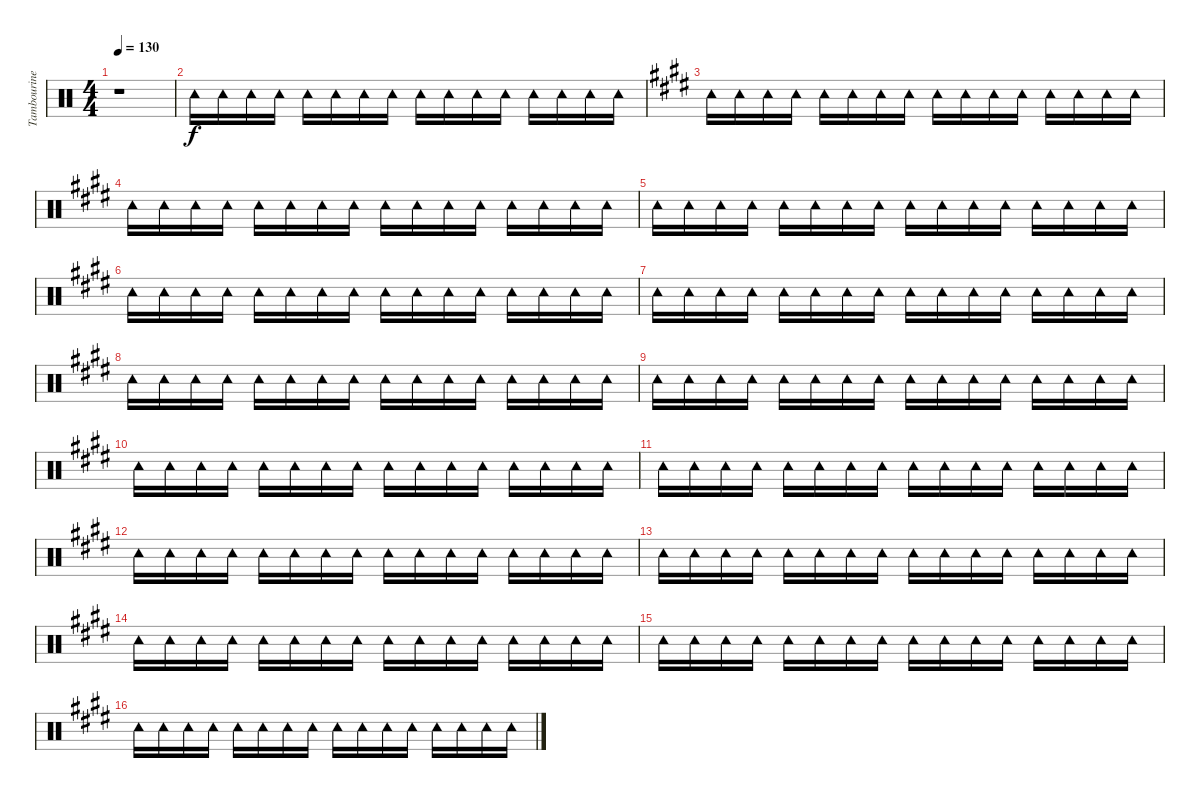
\track ("Tambourine" "Tambourine") {instrument percussion}
\staff {score}
\articulation defaults
\ts (4 4)
\tempo 130
\clef neutral
\ks c
r.1{dy f} |
"Tambourine (hit)".16 "Tambourine (hit)".16 "Tambourine (hit)".16 "Tambourine (hit)".16 "Tambourine (hit)".16 "Tambourine (hit)".16 "Tambourine (hit)".16 "Tambourine (hit)".16 "Tambourine (hit)".16 "Tambourine (hit)".16 "Tambourine (hit)".16 "Tambourine (hit)".16 "Tambourine (hit)".16 "Tambourine (hit)".16 "Tambourine (hit)".16 "Tambourine (hit)".16 |
\ks c#minor "Tambourine (hit)".16 "Tambourine (hit)".16 "Tambourine (hit)".16 "Tambourine (hit)".16 "Tambourine (hit)".16 "Tambourine (hit)".16 "Tambourine (hit)".16 "Tambourine (hit)".16 "Tambourine (hit)".16 "Tambourine (hit)".16 "Tambourine (hit)".16 "Tambourine (hit)".16 "Tambourine (hit)".16 "Tambourine (hit)".16 "Tambourine (hit)".16 "Tambourine (hit)".16
|
"Tambourine (hit)".16 "Tambourine (hit)".16 "Tambourine (hit)".16 "Tambourine (hit)".16 "Tambourine (hit)".16 "Tambourine (hit)".16 "Tambourine (hit)".16 "Tambourine (hit)".16 "Tambourine (hit)".16 "Tambourine (hit)".16 "Tambourine (hit)".16 "Tambourine (hit)".16 "Tambourine (hit)".16 "Tambourine (hit)".16 "Tambourine (hit)".16 "Tambourine (hit)".16 |
"Tambourine (hit)".16 "Tambourine (hit)".16 "Tambourine (hit)".16 "Tambourine (hit)".16 "Tambourine (hit)".16 "Tambourine (hit)".16 "Tambourine (hit)".16 "Tambourine (hit)".16 "Tambourine (hit)".16 "Tambourine (hit)".16 "Tambourine (hit)".16 "Tambourine (hit)".16 "Tambourine (hit)".16 "Tambourine (hit)".16 "Tambourine (hit)".16 "Tambourine (hit)".16 |
"Tambourine (hit)".16 "Tambourine (hit)".16 "Tambourine (hit)".16 "Tambourine (hit)".16 "Tambourine (hit)".16 "Tambourine (hit)".16 "Tambourine (hit)".16 "Tambourine (hit)".16 "Tambourine (hit)".16 "Tambourine (hit)".16 "Tambourine (hit)".16 "Tambourine (hit)".16 "Tambourine (hit)".16 "Tambourine (hit)".16 "Tambourine (hit)".16 "Tambourine (hit)".16 |
"Tambourine (hit)".16 "Tambourine (hit)".16 "Tambourine (hit)".16 "Tambourine (hit)".16 "Tambourine (hit)".16 "Tambourine (hit)".16 "Tambourine (hit)".16 "Tambourine (hit)".16 "Tambourine (hit)".16 "Tambourine (hit)".16 "Tambourine (hit)".16 "Tambourine (hit)".16 "Tambourine (hit)".16 "Tambourine (hit)".16 "Tambourine (hit)".16 "Tambourine (hit)".16 |
"Tambourine (hit)".16 "Tambourine (hit)".16 "Tambourine (hit)".16 "Tambourine (hit)".16 "Tambourine (hit)".16 "Tambourine (hit)".16 "Tambourine (hit)".16 "Tambourine (hit)".16 "Tambourine (hit)".16 "Tambourine (hit)".16 "Tambourine (hit)".16 "Tambourine (hit)".16 "Tambourine (hit)".16 "Tambourine (hit)".16 "Tambourine (hit)".16 "Tambourine (hit)".16 |
"Tambourine (hit)".16 "Tambourine (hit)".16 "Tambourine (hit)".16 "Tambourine (hit)".16 "Tambourine (hit)".16 "Tambourine (hit)".16 "Tambourine (hit)".16 "Tambourine (hit)".16 "Tambourine (hit)".16 "Tambourine (hit)".16 "Tambourine (hit)".16 "Tambourine (hit)".16 "Tambourine (hit)".16 "Tambourine (hit)".16 "Tambourine (hit)".16 "Tambourine (hit)".16 |
"Tambourine (hit)".16 "Tambourine (hit)".16 "Tambourine (hit)".16 "Tambourine (hit)".16 "Tambourine (hit)".16 "Tambourine (hit)".16 "Tambourine (hit)".16 "Tambourine (hit)".16 "Tambourine (hit)".16 "Tambourine (hit)".16 "Tambourine (hit)".16 "Tambourine (hit)".16 "Tambourine (hit)".16 "Tambourine (hit)".16 "Tambourine (hit)".16 "Tambourine (hit)".16 |
"Tambourine (hit)".16 "Tambourine (hit)".16 "Tambourine (hit)".16 "Tambourine (hit)".16 "Tambourine (hit)".16 "Tambourine (hit)".16 "Tambourine (hit)".16 "Tambourine (hit)".16 "Tambourine (hit)".16 "Tambourine (hit)".16 "Tambourine (hit)".16 "Tambourine (hit)".16 "Tambourine (hit)".16 "Tambourine (hit)".16 "Tambourine (hit)".16 "Tambourine (hit)".16 |
"Tambourine (hit)".16 "Tambourine (hit)".16 "Tambourine (hit)".16 "Tambourine (hit)".16 "Tambourine (hit)".16 "Tambourine (hit)".16 "Tambourine (hit)".16 "Tambourine (hit)".16 "Tambourine (hit)".16 "Tambourine (hit)".16 "Tambourine (hit)".16 "Tambourine (hit)".16 "Tambourine (hit)".16 "Tambourine (hit)".16 "Tambourine (hit)".16 "Tambourine (hit)".16 |
\ks e "Tambourine (hit)".16 "Tambourine (hit)".16 "Tambourine (hit)".16 "Tambourine (hit)".16 "Tambourine (hit)".16 "Tambourine (hit)".16 "Tambourine (hit)".16 "Tambourine (hit)".16 "Tambourine (hit)".16 "Tambourine (hit)".16 "Tambourine (hit)".16 "Tambourine (hit)".16 "Tambourine (hit)".16 "Tambourine (hit)".16 "Tambourine (hit)".16 "Tambourine (hit)".16
|
\ks c#minor "Tambourine (hit)".16 "Tambourine (hit)".16 "Tambourine (hit)".16 "Tambourine (hit)".16 "Tambourine (hit)".16 "Tambourine (hit)".16 "Tambourine (hit)".16 "Tambourine (hit)".16 "Tambourine (hit)".16 "Tambourine (hit)".16 "Tambourine (hit)".16 "Tambourine (hit)".16 "Tambourine (hit)".16 "Tambourine (hit)".16 "Tambourine (hit)".16 "Tambourine (hit)".16
|
"Tambourine (hit)".16 "Tambourine (hit)".16 "Tambourine (hit)".16 "Tambourine (hit)".16 "Tambourine (hit)".16 "Tambourine (hit)".16 "Tambourine (hit)".16 "Tambourine (hit)".16 "Tambourine (hit)".16 "Tambourine (hit)".16 "Tambourine (hit)".16 "Tambourine (hit)".16 "Tambourine (hit)".16 "Tambourine (hit)".16 "Tambourine (hit)".16 "Tambourine (hit)".16 |
"Tambourine (hit)".16 "Tambourine (hit)".16 "Tambourine (hit)".16 "Tambourine (hit)".16 "Tambourine (hit)".16 "Tambourine (hit)".16 "Tambourine (hit)".16 "Tambourine (hit)".16 "Tambourine (hit)".16 "Tambourine (hit)".16 "Tambourine (hit)".16 "Tambourine (hit)".16 "Tambourine (hit)".16 "Tambourine (hit)".16 "Tambourine (hit)".16 "Tambourine (hit)".16
